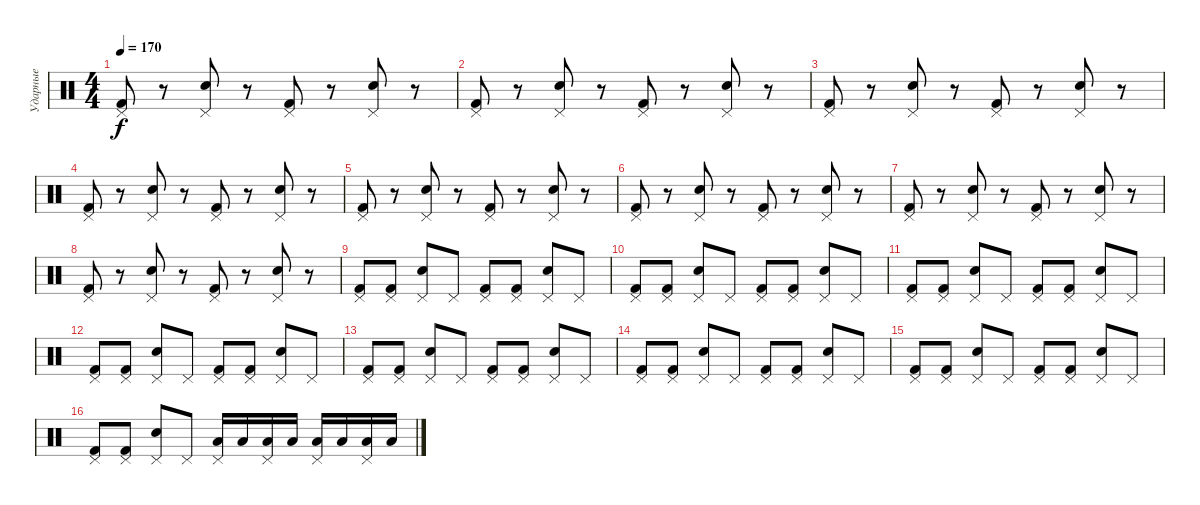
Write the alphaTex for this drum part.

\track ("Ударные" "Ударные") {instrument percussion}
\staff {score}
\articulation defaults
\ts (4 4)
\tempo 170
\clef neutral
\ks c
("Kick (hit) 2" "Pedal Hi-Hat (hit)").8{dy f} r.8 ("Pedal Hi-Hat (hit)" "Snare (hit) 2").8 r.8 ("Kick (hit) 2" "Pedal Hi-Hat (hit)").8 r.8 ("Snare (hit) 2" "Pedal Hi-Hat (hit)").8 r.8 |
("Kick (hit) 2" "Pedal Hi-Hat (hit)").8 r.8 ("Pedal Hi-Hat (hit)" "Snare (hit) 2").8 r.8 ("Pedal Hi-Hat (hit)" "Kick (hit) 2").8 r.8 ("Pedal Hi-Hat (hit)" "Snare (hit) 2").8 r.8 |
("Pedal Hi-Hat (hit)" "Kick (hit) 2").8 r.8 ("Pedal Hi-Hat (hit)" "Snare (hit) 2").8 r.8 ("Pedal Hi-Hat (hit)" "Kick (hit) 2").8 r.8 ("Pedal Hi-Hat (hit)" "Snare (hit) 2").8 r.8 |
("Kick (hit) 2" "Pedal Hi-Hat (hit)").8 r.8 ("Snare (hit) 2" "Pedal Hi-Hat (hit)").8 r.8 ("Kick (hit) 2" "Pedal Hi-Hat (hit)").8 r.8 ("Snare (hit) 2" "Pedal Hi-Hat (hit)").8 r.8 |
("Pedal Hi-Hat (hit)" "Kick (hit) 2").8 r.8 ("Snare (hit) 2" "Pedal Hi-Hat (hit)").8 r.8 ("Pedal Hi-Hat (hit)" "Kick (hit) 2").8 r.8 ("Pedal Hi-Hat (hit)" "Snare (hit) 2").8 r.8 |
("Kick (hit) 2" "Pedal Hi-Hat (hit)").8 r.8 ("Pedal Hi-Hat (hit)" "Snare (hit) 2").8 r.8 ("Kick (hit) 2" "Pedal Hi-Hat (hit)").8 r.8 ("Snare (hit) 2" "Pedal Hi-Hat (hit)").8 r.8 |
("Pedal Hi-Hat (hit)" "Kick (hit) 2").8 r.8 ("Pedal Hi-Hat (hit)" "Snare (hit) 2").8 r.8 ("Pedal Hi-Hat (hit)" "Kick (hit) 2").8 r.8 ("Pedal Hi-Hat (hit)" "Snare (hit) 2").8 r.8 |
("Kick (hit) 2" "Pedal Hi-Hat (hit)").8 r.8 ("Snare (hit) 2" "Pedal Hi-Hat (hit)").8 r.8 ("Kick (hit) 2" "Pedal Hi-Hat (hit)").8 r.8 ("Snare (hit) 2" "Pedal Hi-Hat (hit)").8 r.8 |
("Pedal Hi-Hat (hit)" "Kick (hit) 2").8 ("Pedal Hi-Hat (hit)" "Kick (hit) 2").8 ("Pedal Hi-Hat (hit)" "Electric Snare (hit)").8 "Pedal Hi-Hat (hit)".8 ("Pedal Hi-Hat (hit)" "Kick (hit) 2").8 ("Pedal Hi-Hat (hit)" "Kick (hit) 2").8 ("Pedal Hi-Hat (hit)" "Electric Snare (hit)").8 "Pedal Hi-Hat (hit)".8 |
("Pedal Hi-Hat (hit)" "Kick (hit) 2").8 ("Pedal Hi-Hat (hit)" "Kick (hit) 2").8 ("Pedal Hi-Hat (hit)" "Electric Snare (hit)").8 "Pedal Hi-Hat (hit)".8 ("Pedal Hi-Hat (hit)" "Kick (hit) 2").8 ("Pedal Hi-Hat (hit)" "Kick (hit) 2").8 ("Pedal Hi-Hat (hit)" "Electric Snare (hit)").8 "Pedal Hi-Hat (hit)".8 |
("Kick (hit) 2" "Pedal Hi-Hat (hit)").8 ("Pedal Hi-Hat (hit)" "Kick (hit) 2").8 ("Pedal Hi-Hat (hit)" "Electric Snare (hit)").8 "Pedal Hi-Hat (hit)".8 ("Kick (hit) 2" "Pedal Hi-Hat (hit)").8 ("Pedal Hi-Hat (hit)" "Kick (hit) 2").8 ("Electric Snare (hit)" "Pedal Hi-Hat (hit)").8 "Pedal Hi-Hat (hit)".8 |
("Pedal Hi-Hat (hit)" "Kick (hit) 2").8 ("Kick (hit) 2" "Pedal Hi-Hat (hit)").8 ("Pedal Hi-Hat (hit)" "Electric Snare (hit)").8 "Pedal Hi-Hat (hit)".8 ("Kick (hit) 2" "Pedal Hi-Hat (hit)").8 ("Pedal Hi-Hat (hit)" "Kick (hit) 2").8 ("Pedal Hi-Hat (hit)" "Electric Snare (hit)").8 "Pedal Hi-Hat (hit)".8 |
("Kick (hit) 2" "Pedal Hi-Hat (hit)").8 ("Pedal Hi-Hat (hit)" "Kick (hit) 2").8 ("Electric Snare (hit)" "Pedal Hi-Hat (hit)").8 "Pedal Hi-Hat (hit)".8 ("Pedal Hi-Hat (hit)" "Kick (hit) 2").8 ("Kick (hit) 2" "Pedal Hi-Hat (hit)").8 ("Pedal Hi-Hat (hit)" "Electric Snare (hit)").8 "Pedal Hi-Hat (hit)".8 |
("Kick (hit) 2" "Pedal Hi-Hat (hit)").8 ("Pedal Hi-Hat (hit)" "Kick (hit) 2").8 ("Pedal Hi-Hat (hit)" "Electric Snare (hit)").8 "Pedal Hi-Hat (hit)".8 ("Kick (hit) 2" "Pedal Hi-Hat (hit)").8 ("Pedal Hi-Hat (hit)" "Kick (hit) 2").8 ("Electric Snare (hit)" "Pedal Hi-Hat (hit)").8 "Pedal Hi-Hat (hit)".8 |
("Pedal Hi-Hat (hit)" "Kick (hit) 2").8 ("Kick (hit) 2" "Pedal Hi-Hat (hit)").8 ("Pedal Hi-Hat (hit)" "Electric Snare (hit)").8 "Pedal Hi-Hat (hit)".8 ("Kick (hit) 2" "Pedal Hi-Hat (hit)").8 ("Pedal Hi-Hat (hit)" "Kick (hit) 2").8 ("Pedal Hi-Hat (hit)" "Electric Snare (hit)").8 "Pedal Hi-Hat (hit)".8 |
("Kick (hit) 2" "Pedal Hi-Hat (hit)").8 ("Pedal Hi-Hat (hit)" "Kick (hit) 2").8 ("Electric Snare (hit)" "Pedal Hi-Hat (hit)").8 "Pedal Hi-Hat (hit)".8 ("Pedal Hi-Hat (hit)" "Low Tom (hit)").16 "Low Tom (hit)".16 ("Low Tom (hit)" "Pedal Hi-Hat (hit)").16 "Low Tom (hit)".16 ("Pedal Hi-Hat (hit)" "Low Tom (hit)").16 "Low Tom (hit)".16 ("Pedal Hi-Hat (hit)" "Low Tom (hit)").16 "Low Tom (hit)".16
